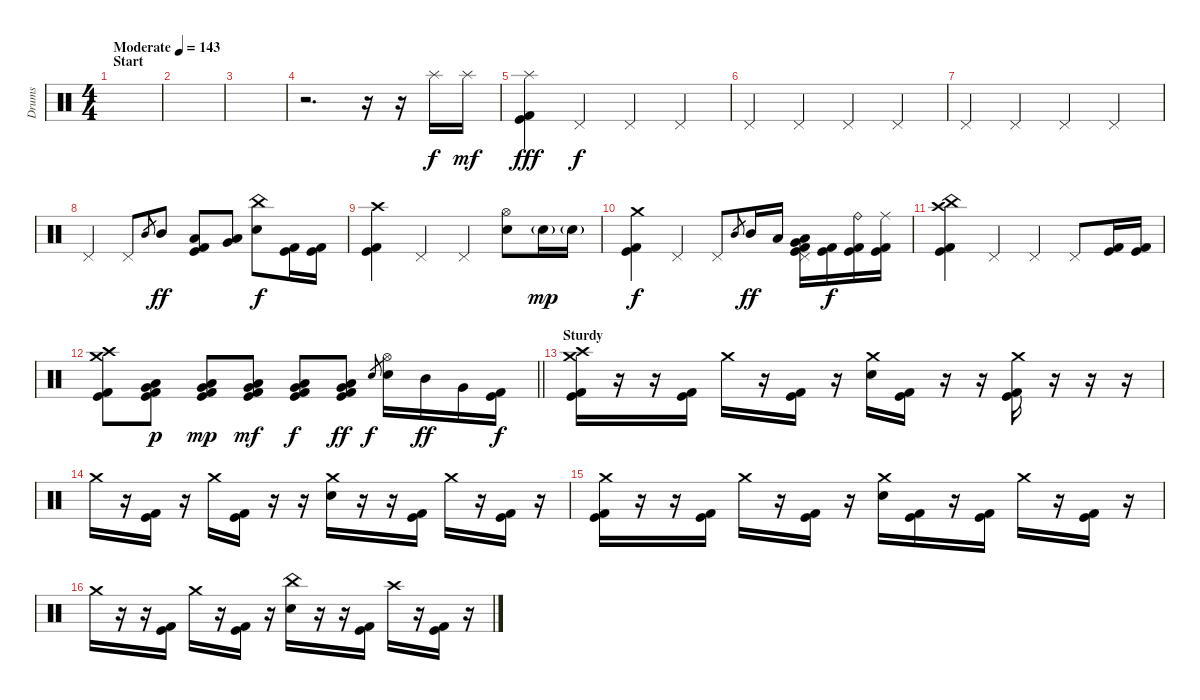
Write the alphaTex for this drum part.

\track ("Drums" "Drums") {instrument percussion}
\staff {score}
\articulation defaults
\ts (4 4)
\section ("" "Start")
\tempo (143 "Moderate")
\clef neutral
\ks c
|
|
|
r.2{d} r.16 r.16 "Splash (hit)".16 "Splash (hit)".16{dy mf} |
("Splash (hit)" "Kick (hit)" "Kick (hit) 2").4{dy fff} "Pedal Hi-Hat (hit)".4{dy f} "Pedal Hi-Hat (hit)".4 "Pedal Hi-Hat (hit)".4 |
"Pedal Hi-Hat (hit)".4 "Pedal Hi-Hat (hit)".4 "Pedal Hi-Hat (hit)".4 "Pedal Hi-Hat (hit)".4 |
"Pedal Hi-Hat (hit)".4 "Pedal Hi-Hat (hit)".4 "Pedal Hi-Hat (hit)".4 "Pedal Hi-Hat (hit)".4 |
"Pedal Hi-Hat (hit)".4 "Pedal Hi-Hat (hit)".8 "Mid Tom (hit)".8{gr} "Mid Tom (hit)".8{dy ff} ("Low Tom (hit)" "Kick (hit)" "Kick (hit) 2").8 ("Low Floor Tom (hit)" "Very Low Tom (hit)").8 ("China (hit)" "Electric Snare (hit)").8{dy f} ("Kick (hit)" "Kick (hit) 2").16 ("Kick (hit)" "Kick (hit) 2").16 |
("Crash high (hit)" "Kick (hit)" "Kick (hit) 2").4 "Pedal Hi-Hat (hit)".4 "Pedal Hi-Hat (hit)".4 ("Hi-Hat (open)" "Electric Snare (hit)").8 "Electric Snare (hit)"{g}.16{dy mp} "Electric Snare (hit)"{g}.16 |
("Crash medium (hit)" "Kick (hit)" "Kick (hit) 2").4{dy f} "Pedal Hi-Hat (hit)".4 "Pedal Hi-Hat (hit)".8 "Mid Tom (hit)".8{gr} "Mid Tom (hit)".16{dy ff} "Low Tom (hit)".16 ("Pedal Hi-Hat (hit)" "Low Floor Tom (hit)" "Very Low Tom (hit)" "Kick (hit)" "Kick (hit) 2").16 ("Kick (hit)" "Kick (hit) 2").16{dy f} ("Ride (bell)" "Kick (hit)" "Kick (hit) 2").16 ("Ride (middle)" "Kick (hit)" "Kick (hit) 2").16 |
("Crash high (hit)" "China (hit)" "Kick (hit)" "Kick (hit) 2").4 "Pedal Hi-Hat (hit)".4 "Pedal Hi-Hat (hit)".4 "Pedal Hi-Hat (hit)".8 ("Kick (hit)" "Kick (hit) 2").16 ("Kick (hit)" "Kick (hit) 2").16 |
\barLineRight lightlight
("Crash medium (hit)" "Crash high (hit)" "Kick (hit)" "Kick (hit) 2").8 ("Low Floor Tom (hit)" "Very Low Tom (hit)" "Kick (hit)" "Kick (hit) 2").8{dy p} ("Low Floor Tom (hit)" "Very Low Tom (hit)" "Kick (hit)" "Kick (hit) 2").8{dy mp} ("Low Floor Tom (hit)" "Very Low Tom (hit)" "Kick (hit)" "Kick (hit) 2").8{dy mf} ("Low Floor Tom (hit)" "Very Low Tom (hit)" "Kick (hit)" "Kick (hit) 2").8{dy f} ("Low Floor Tom (hit)" "Very Low Tom (hit)" "Kick (hit)" "Kick (hit) 2").8{dy ff} "Electric Snare (hit)".8{gr dy f} ("Hi-Hat (open)" "Electric Snare (hit)").16 "Mid Tom (hit)".16{dy ff} "Very Low Tom (hit)".16 ("Kick (hit)" "Kick (hit) 2").16{dy f} |
\section ("" "Sturdy")
("Crash medium (hit)" "Crash high (hit)" "Kick (hit)" "Kick (hit) 2").16 r.16 r.16 ("Kick (hit)" "Kick (hit) 2").16 "Crash medium (hit)".16 r.16 ("Kick (hit)" "Kick (hit) 2").16 r.16 ("Crash medium (hit)" "Electric Snare (hit)").16 ("Kick (hit)" "Kick (hit) 2").16 r.16 r.16 ("Crash medium (hit)" "Kick (hit)" "Kick (hit) 2").16 r.16 r.16 r.16 |
"Crash medium (hit)".16 r.16 ("Kick (hit)" "Kick (hit) 2").16 r.16 "Crash medium (hit)".16 ("Kick (hit)" "Kick (hit) 2").16 r.16 r.16 ("Crash medium (hit)" "Electric Snare (hit)").16 r.16 r.16 ("Kick (hit)" "Kick (hit) 2").16 "Crash medium (hit)".16 r.16 ("Kick (hit)" "Kick (hit) 2").16 r.16 |
("Crash medium (hit)" "Kick (hit)" "Kick (hit) 2").16 r.16 r.16 ("Kick (hit)" "Kick (hit) 2").16 "Crash medium (hit)".16 r.16 ("Kick (hit)" "Kick (hit) 2").16 r.16 ("Crash medium (hit)" "Electric Snare (hit)").16 ("Kick (hit)" "Kick (hit) 2").16 r.16 ("Kick (hit)" "Kick (hit) 2").16 "Crash medium (hit)".16 r.16 ("Kick (hit)" "Kick (hit) 2").16 r.16 |
"Crash medium (hit)".16 r.16 r.16 ("Kick (hit)" "Kick (hit) 2").16 "Crash medium (hit)".16 r.16 ("Kick (hit)" "Kick (hit) 2").16 r.16 ("China (hit)" "Electric Snare (hit)").16 r.16 r.16 ("Kick (hit)" "Kick (hit) 2").16 "Crash high (hit)".16 r.16 ("Kick (hit)" "Kick (hit) 2").16 r.16
